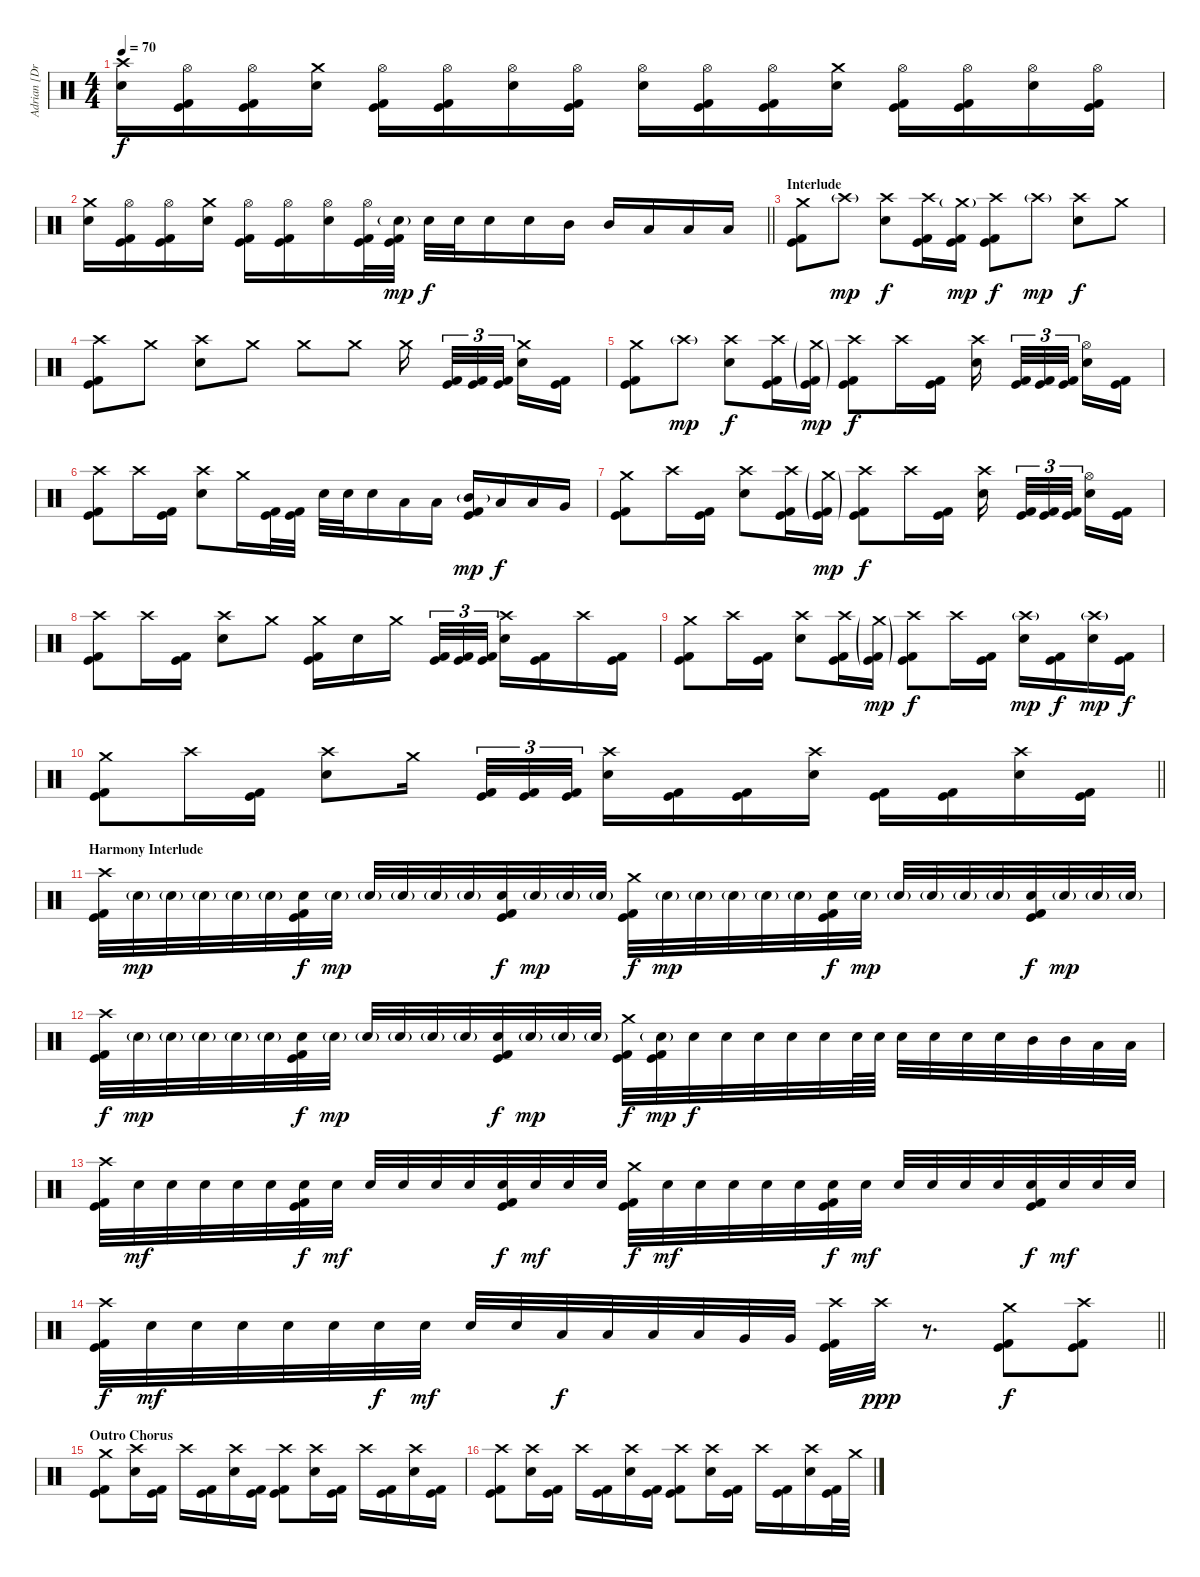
\track ("Adrian [Drums]" "Adrian [Dr") {instrument percussion}
\staff {score}
\articulation defaults
\ts (4 4)
\tempo 70
\clef neutral
\ks c
("Crash high (hit)" "Electric Snare (hit)").16{dy f} ("Hi-Hat (open)" "Kick (hit)" "Kick (hit) 2").16 ("Hi-Hat (open)" "Kick (hit)" "Kick (hit) 2").16 ("Crash medium (hit)" "Electric Snare (hit)").16 ("Hi-Hat (open)" "Kick (hit)" "Kick (hit) 2").16 ("Hi-Hat (open)" "Kick (hit)" "Kick (hit) 2").16 ("Hi-Hat (open)" "Electric Snare (hit)").16 ("Hi-Hat (open)" "Kick (hit)" "Kick (hit) 2").16 ("Hi-Hat (open)" "Electric Snare (hit)").16 ("Hi-Hat (open)" "Kick (hit)" "Kick (hit) 2").16 ("Hi-Hat (open)" "Kick (hit)" "Kick (hit) 2").16 ("Crash medium (hit)" "Electric Snare (hit)").16 ("Hi-Hat (open)" "Kick (hit)" "Kick (hit) 2").16 ("Hi-Hat (open)" "Kick (hit)" "Kick (hit) 2").16 ("Hi-Hat (open)" "Electric Snare (hit)").16 ("Hi-Hat (open)" "Kick (hit)" "Kick (hit) 2").16 |
\barLineRight lightlight
("Crash medium (hit)" "Electric Snare (hit)").16 ("Hi-Hat (open)" "Kick (hit)" "Kick (hit) 2").16 ("Hi-Hat (open)" "Kick (hit)" "Kick (hit) 2").16 ("Crash medium (hit)" "Electric Snare (hit)").16 ("Hi-Hat (open)" "Kick (hit)" "Kick (hit) 2").16 ("Hi-Hat (open)" "Kick (hit)" "Kick (hit) 2").16 ("Hi-Hat (open)" "Electric Snare (hit)").16 ("Hi-Hat (open)" "Kick (hit)" "Kick (hit) 2").32 ("Electric Snare (hit)"{g} "Kick (hit)" "Kick (hit) 2").32{dy mp} "Electric Snare (hit)".32{dy f} "Electric Snare (hit)".32 "Electric Snare (hit)".16 "Electric Snare (hit)".16 "Mid Tom (hit)".16 "Mid Tom (hit)".16 "Low Tom (hit)".16 "Low Tom (hit)".16 "Low Tom (hit)".16 |
\section ("" "Interlude")
("Crash medium (hit)" "Kick (hit)" "Kick (hit) 2").8 "Crash high (hit)"{g}.8{dy mp} ("Crash high (hit)" "Electric Snare (hit)").8{dy f} ("Crash high (hit)" "Kick (hit)" "Kick (hit) 2").16 ("Crash medium (hit)"{g} "Kick (hit)" "Kick (hit) 2").16{dy mp} ("Crash high (hit)" "Kick (hit)" "Kick (hit) 2").8{dy f} "Crash high (hit)"{g}.8{dy mp} ("Crash high (hit)" "Electric Snare (hit)").8{dy f} "Crash medium (hit)".8 |
("Crash high (hit)" "Kick (hit)" "Kick (hit) 2").8 "Crash medium (hit)".8 ("Crash high (hit)" "Electric Snare (hit)").8 "Crash medium (hit)".8 "Crash medium (hit)".8 "Crash medium (hit)".8 "Crash medium (hit)".16{beam splitsecondary} ("Kick (hit)" "Kick (hit) 2").32{tu (3 2)} ("Kick (hit)" "Kick (hit) 2").32{tu (3 2)} ("Kick (hit)" "Kick (hit) 2").32{tu (3 2) beam splitsecondary} ("Crash medium (hit)" "Electric Snare (hit)").16 ("Kick (hit)" "Kick (hit) 2").16 |
("Crash medium (hit)" "Kick (hit)" "Kick (hit) 2").8 "Crash high (hit)"{g}.8{dy mp} ("Crash high (hit)" "Electric Snare (hit)").8{dy f} ("Crash high (hit)" "Kick (hit)" "Kick (hit) 2").16 ("Crash medium (hit)"{g} "Kick (hit)"{g} "Kick (hit) 2"{g}).16{dy mp} ("Crash high (hit)" "Kick (hit)" "Kick (hit) 2").8{dy f} "Crash high (hit)".16 ("Kick (hit)" "Kick (hit) 2").16 ("Crash high (hit)" "Electric Snare (hit)").16{beam splitsecondary} ("Kick (hit)" "Kick (hit) 2").32{tu (3 2)} ("Kick (hit)" "Kick (hit) 2").32{tu (3 2)} ("Kick (hit)" "Kick (hit) 2").32{tu (3 2) beam splitsecondary} ("Hi-Hat (open)" "Electric Snare (hit)").16 ("Kick (hit)" "Kick (hit) 2").16 |
("Crash high (hit)" "Kick (hit)" "Kick (hit) 2").8 "Crash high (hit)".16 ("Kick (hit)" "Kick (hit) 2").16 ("Crash high (hit)" "Electric Snare (hit)").8 "Crash medium (hit)".16 ("Kick (hit)" "Kick (hit) 2").32 ("Kick (hit)" "Kick (hit) 2").32 "Electric Snare (hit)".32 "Electric Snare (hit)".32 "Electric Snare (hit)".16 "Low Tom (hit)".16 "Low Tom (hit)".16 ("Mid Tom (hit)"{g} "Kick (hit)" "Kick (hit) 2").16{dy mp} "Low Tom (hit)".16{dy f} "Low Tom (hit)".16 "Very Low Tom (hit)".16 |
("Crash medium (hit)" "Kick (hit)" "Kick (hit) 2").8 "Crash high (hit)".16 ("Kick (hit)" "Kick (hit) 2").16 ("Crash high (hit)" "Electric Snare (hit)").8 ("Crash high (hit)" "Kick (hit)" "Kick (hit) 2").16 ("Crash medium (hit)"{g} "Kick (hit)"{g} "Kick (hit) 2"{g}).16{dy mp} ("Crash high (hit)" "Kick (hit)" "Kick (hit) 2").8{dy f} "Crash high (hit)".16 ("Kick (hit)" "Kick (hit) 2").16 ("Crash high (hit)" "Electric Snare (hit)").16{beam splitsecondary} ("Kick (hit)" "Kick (hit) 2").32{tu (3 2)} ("Kick (hit)" "Kick (hit) 2").32{tu (3 2)} ("Kick (hit)" "Kick (hit) 2").32{tu (3 2) beam splitsecondary} ("Hi-Hat (open)" "Electric Snare (hit)").16 ("Kick (hit)" "Kick (hit) 2").16 |
("Crash high (hit)" "Kick (hit)" "Kick (hit) 2").8 "Crash high (hit)".16 ("Kick (hit)" "Kick (hit) 2").16 ("Crash high (hit)" "Electric Snare (hit)").8 "Crash medium (hit)".8 ("Crash medium (hit)" "Kick (hit)" "Kick (hit) 2").16 "Electric Snare (hit)".16 "Crash medium (hit)".16{beam splitsecondary} ("Kick (hit)" "Kick (hit) 2").32{tu (3 2)} ("Kick (hit)" "Kick (hit) 2").32{tu (3 2)} ("Kick (hit)" "Kick (hit) 2").32{tu (3 2)} ("Crash high (hit)" "Electric Snare (hit)").16 ("Kick (hit)" "Kick (hit) 2").16 "Crash high (hit)".16 ("Kick (hit)" "Kick (hit) 2").16 |
("Crash medium (hit)" "Kick (hit)" "Kick (hit) 2").8 "Crash high (hit)".16 ("Kick (hit)" "Kick (hit) 2").16 ("Crash high (hit)" "Electric Snare (hit)").8 ("Crash high (hit)" "Kick (hit)" "Kick (hit) 2").16 ("Crash medium (hit)"{g} "Kick (hit)"{g} "Kick (hit) 2"{g}).16{dy mp} ("Crash high (hit)" "Kick (hit)" "Kick (hit) 2").8{dy f} "Crash high (hit)".16 ("Kick (hit)" "Kick (hit) 2").16 ("Crash high (hit)"{g} "Electric Snare (hit)").16{dy mp} ("Kick (hit)" "Kick (hit) 2").16{dy f} ("Crash high (hit)"{g} "Electric Snare (hit)").16{dy mp} ("Kick (hit)" "Kick (hit) 2").16{dy f} |
\barLineRight lightlight
("Crash medium (hit)" "Kick (hit)" "Kick (hit) 2").8 "Crash high (hit)".16 ("Kick (hit)" "Kick (hit) 2").16 ("Crash high (hit)" "Electric Snare (hit)").8 "Crash medium (hit)".16{beam splitsecondary} ("Kick (hit)" "Kick (hit) 2").32{tu (3 2)} ("Kick (hit)" "Kick (hit) 2").32{tu (3 2)} ("Kick (hit)" "Kick (hit) 2").32{tu (3 2)} ("Crash high (hit)" "Electric Snare (hit)").16 ("Kick (hit)" "Kick (hit) 2").16 ("Kick (hit)" "Kick (hit) 2").16 ("Crash high (hit)" "Electric Snare (hit)").16 ("Kick (hit)" "Kick (hit) 2").16 ("Kick (hit)" "Kick (hit) 2").16 ("Crash high (hit)" "Electric Snare (hit)").16 ("Kick (hit)" "Kick (hit) 2").16 |
\section ("" "Harmony Interlude")
("Crash high (hit)" "Kick (hit)" "Kick (hit) 2").32 "Electric Snare (hit)"{g}.32{dy mp} "Electric Snare (hit)"{g}.32 "Electric Snare (hit)"{g}.32 "Electric Snare (hit)"{g}.32 "Electric Snare (hit)"{g}.32 ("Electric Snare (hit)" "Kick (hit)" "Kick (hit) 2").32{dy f} "Electric Snare (hit)"{g}.32{dy mp} "Electric Snare (hit)"{g}.32 "Electric Snare (hit)"{g}.32 "Electric Snare (hit)"{g}.32 "Electric Snare (hit)"{g}.32 ("Electric Snare (hit)" "Kick (hit)" "Kick (hit) 2").32{dy f} "Electric Snare (hit)"{g}.32{dy mp} "Electric Snare (hit)"{g}.32 "Electric Snare (hit)"{g}.32 ("Crash medium (hit)" "Kick (hit)" "Kick (hit) 2").32{dy f} "Electric Snare (hit)"{g}.32{dy mp} "Electric Snare (hit)"{g}.32 "Electric Snare (hit)"{g}.32 "Electric Snare (hit)"{g}.32 "Electric Snare (hit)"{g}.32 ("Electric Snare (hit)" "Kick (hit)" "Kick (hit) 2").32{dy f} "Electric Snare (hit)"{g}.32{dy mp} "Electric Snare (hit)"{g}.32 "Electric Snare (hit)"{g}.32 "Electric Snare (hit)"{g}.32 "Electric Snare (hit)"{g}.32 ("Electric Snare (hit)" "Kick (hit)" "Kick (hit) 2").32{dy f} "Electric Snare (hit)"{g}.32{dy mp} "Electric Snare (hit)"{g}.32 "Electric Snare (hit)"{g}.32 |
("Crash high (hit)" "Kick (hit)" "Kick (hit) 2").32{dy f} "Electric Snare (hit)"{g}.32{dy mp} "Electric Snare (hit)"{g}.32 "Electric Snare (hit)"{g}.32 "Electric Snare (hit)"{g}.32 "Electric Snare (hit)"{g}.32 ("Electric Snare (hit)" "Kick (hit)" "Kick (hit) 2").32{dy f} "Electric Snare (hit)"{g}.32{dy mp} "Electric Snare (hit)"{g}.32 "Electric Snare (hit)"{g}.32 "Electric Snare (hit)"{g}.32 "Electric Snare (hit)"{g}.32 ("Electric Snare (hit)" "Kick (hit)" "Kick (hit) 2").32{dy f} "Electric Snare (hit)"{g}.32{dy mp} "Electric Snare (hit)"{g}.32 "Electric Snare (hit)"{g}.32 ("Crash medium (hit)" "Kick (hit)" "Kick (hit) 2").32{dy f} ("Electric Snare (hit)"{g} "Kick (hit)" "Kick (hit) 2").32{dy mp} "Electric Snare (hit)".32{dy f} "Electric Snare (hit)".32 "Electric Snare (hit)".32 "Electric Snare (hit)".32 "Electric Snare (hit)".32 "Electric Snare (hit)".64 "Electric Snare (hit)".64 "Electric Snare (hit)".32 "Electric Snare (hit)".32 "Electric Snare (hit)".32 "Electric Snare (hit)".32 "Mid Tom (hit)".32 "Mid Tom (hit)".32 "Low Tom (hit)".32 "Low Tom (hit)".32 |
("Crash high (hit)" "Kick (hit)" "Kick (hit) 2").32 "Electric Snare (hit)".32{dy mf} "Electric Snare (hit)".32 "Electric Snare (hit)".32 "Electric Snare (hit)".32 "Electric Snare (hit)".32 ("Electric Snare (hit)" "Kick (hit)" "Kick (hit) 2").32{dy f} "Electric Snare (hit)".32{dy mf} "Electric Snare (hit)".32 "Electric Snare (hit)".32 "Electric Snare (hit)".32 "Electric Snare (hit)".32 ("Electric Snare (hit)" "Kick (hit)" "Kick (hit) 2").32{dy f} "Electric Snare (hit)".32{dy mf} "Electric Snare (hit)".32 "Electric Snare (hit)".32 ("Crash medium (hit)" "Kick (hit)" "Kick (hit) 2").32{dy f} "Electric Snare (hit)".32{dy mf} "Electric Snare (hit)".32 "Electric Snare (hit)".32 "Electric Snare (hit)".32 "Electric Snare (hit)".32 ("Electric Snare (hit)" "Kick (hit)" "Kick (hit) 2").32{dy f} "Electric Snare (hit)".32{dy mf} "Electric Snare (hit)".32 "Electric Snare (hit)".32 "Electric Snare (hit)".32 "Electric Snare (hit)".32 ("Electric Snare (hit)" "Kick (hit)" "Kick (hit) 2").32{dy f} "Electric Snare (hit)".32{dy mf} "Electric Snare (hit)".32 "Electric Snare (hit)".32 |
\barLineRight lightlight
("Crash high (hit)" "Kick (hit)" "Kick (hit) 2").32{dy f} "Electric Snare (hit)".32{dy mf} "Electric Snare (hit)".32 "Electric Snare (hit)".32 "Electric Snare (hit)".32 "Electric Snare (hit)".32 "Electric Snare (hit)".32{dy f} "Electric Snare (hit)".32{dy mf} "Electric Snare (hit)".32 "Electric Snare (hit)".32 "Low Tom (hit)".32{dy f} "Low Tom (hit)".32 "Low Tom (hit)".32 "Low Tom (hit)".32 "Very Low Tom (hit)".32 "Very Low Tom (hit)".32 ("Crash high (hit)" "Kick (hit)" "Kick (hit) 2").32 "Crash high (hit)".32{dy ppp} r.8{d} ("Crash medium (hit)" "Kick (hit)" "Kick (hit) 2").8{dy f} ("Crash high (hit)" "Kick (hit)" "Kick (hit) 2").8 |
\section ("" "Outro Chorus")
("Crash medium (hit)" "Kick (hit)" "Kick (hit) 2").8 ("Crash high (hit)" "Electric Snare (hit)").16 ("Kick (hit)" "Kick (hit) 2").16 "Crash high (hit)".16 ("Kick (hit)" "Kick (hit) 2").16 ("Crash high (hit)" "Electric Snare (hit)").16 ("Kick (hit)" "Kick (hit) 2").16 ("Crash high (hit)" "Kick (hit)" "Kick (hit) 2").8 ("Crash high (hit)" "Electric Snare (hit)").16 ("Kick (hit)" "Kick (hit) 2").16 "Crash high (hit)".16 ("Kick (hit)" "Kick (hit) 2").16 ("Crash high (hit)" "Electric Snare (hit)").16 ("Kick (hit)" "Kick (hit) 2").16 |
("Crash high (hit)" "Kick (hit)" "Kick (hit) 2").8 ("Crash high (hit)" "Electric Snare (hit)").16 ("Kick (hit)" "Kick (hit) 2").16 "Crash high (hit)".16 ("Kick (hit)" "Kick (hit) 2").16 ("Crash high (hit)" "Electric Snare (hit)").16 ("Kick (hit)" "Kick (hit) 2").16 ("Crash high (hit)" "Kick (hit)" "Kick (hit) 2").8 ("Crash high (hit)" "Electric Snare (hit)").16 ("Kick (hit)" "Kick (hit) 2").16 "Crash high (hit)".16 ("Kick (hit)" "Kick (hit) 2").16 ("Crash high (hit)" "Electric Snare (hit)").16 ("Kick (hit)" "Kick (hit) 2").32 "Crash medium (hit)".32
